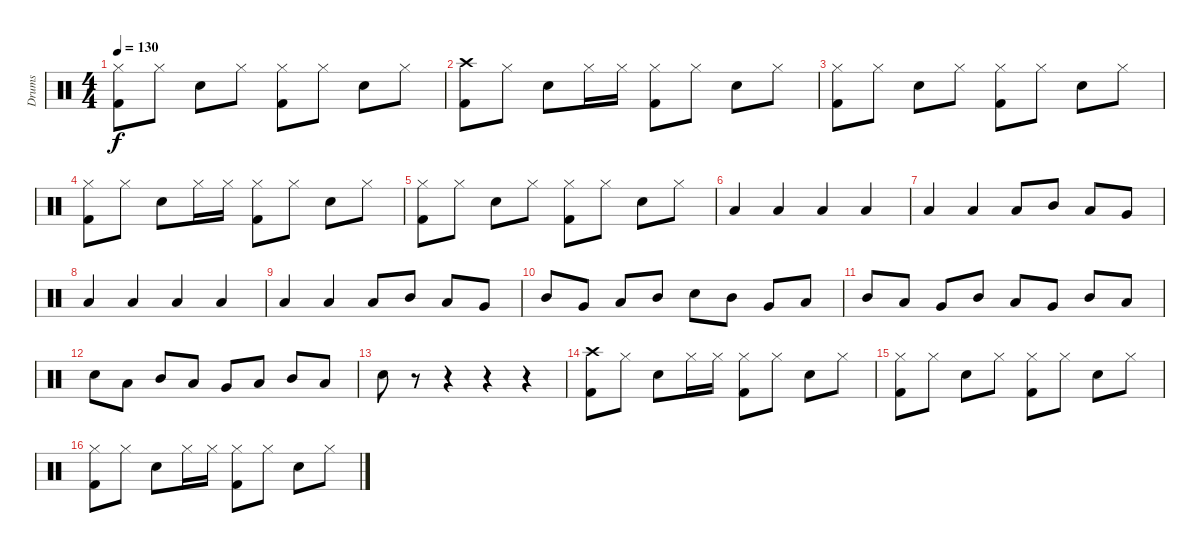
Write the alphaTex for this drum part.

\track ("Drums" "Drums") {instrument percussion}
\staff {score}
\articulation defaults
\ts (4 4)
\tempo 130
\clef neutral
\ks c
("Hi-Hat (closed)" "Kick (hit) 2").8{dy f} "Hi-Hat (closed)".8 "Snare (hit) 2".8 "Hi-Hat (closed)".8 ("Hi-Hat (closed)" "Kick (hit) 2").8 "Hi-Hat (closed)".8 "Snare (hit) 2".8 "Hi-Hat (closed)".8 |
("Crash high (hit)" "Kick (hit) 2").8 "Hi-Hat (closed)".8 "Snare (hit) 2".8 "Hi-Hat (closed)".16 "Hi-Hat (closed)".16 ("Hi-Hat (closed)" "Kick (hit) 2").8 "Hi-Hat (closed)".8 "Snare (hit) 2".8 "Hi-Hat (closed)".8 |
("Hi-Hat (closed)" "Kick (hit) 2").8 "Hi-Hat (closed)".8 "Snare (hit) 2".8 "Hi-Hat (closed)".8 ("Hi-Hat (closed)" "Kick (hit) 2").8 "Hi-Hat (closed)".8 "Snare (hit) 2".8 "Hi-Hat (closed)".8 |
("Hi-Hat (closed)" "Kick (hit) 2").8 "Hi-Hat (closed)".8 "Snare (hit) 2".8 "Hi-Hat (closed)".16 "Hi-Hat (closed)".16 ("Hi-Hat (closed)" "Kick (hit) 2").8 "Hi-Hat (closed)".8 "Snare (hit) 2".8 "Hi-Hat (closed)".8 |
("Hi-Hat (closed)" "Kick (hit) 2").8 "Hi-Hat (closed)".8 "Snare (hit) 2".8 "Hi-Hat (closed)".8 ("Hi-Hat (closed)" "Kick (hit) 2").8 "Hi-Hat (closed)".8 "Snare (hit) 2".8 "Hi-Hat (closed)".8 |
"Low Tom (hit)".4 "Low Tom (hit)".4 "Low Tom (hit)".4 "Low Tom (hit)".4 |
"Low Tom (hit)".4 "Low Tom (hit)".4 "Low Tom (hit)".8 "Mid Tom (hit)".8 "Low Tom (hit)".8 "Very Low Tom (hit)".8 |
"Low Tom (hit)".4 "Low Tom (hit)".4 "Low Tom (hit)".4 "Low Tom (hit)".4 |
"Low Tom (hit)".4 "Low Tom (hit)".4 "Low Tom (hit)".8 "Mid Tom (hit)".8 "Low Tom (hit)".8 "Very Low Tom (hit)".8 |
"Mid Tom (hit)".8 "Very Low Tom (hit)".8 "Low Tom (hit)".8 "Mid Tom (hit)".8 "Snare (hit) 2".8 "Mid Tom (hit)".8 "Very Low Tom (hit)".8 "Low Tom (hit)".8 |
"Mid Tom (hit)".8 "Low Tom (hit)".8 "Very Low Tom (hit)".8 "Mid Tom (hit)".8 "Low Tom (hit)".8 "Very Low Tom (hit)".8 "Mid Tom (hit)".8 "Low Tom (hit)".8 |
"Snare (hit) 2".8 "Low Tom (hit)".8 "Mid Tom (hit)".8 "Low Tom (hit)".8 "Very Low Tom (hit)".8 "Low Tom (hit)".8 "Mid Tom (hit)".8 "Low Tom (hit)".8 |
"Snare (hit) 2".8 r.8 r.4 r.4 r.4 |
("Crash high (hit)" "Kick (hit) 2").8 "Hi-Hat (closed)".8 "Snare (hit) 2".8 "Hi-Hat (closed)".16 "Hi-Hat (closed)".16 ("Hi-Hat (closed)" "Kick (hit) 2").8 "Hi-Hat (closed)".8 "Snare (hit) 2".8 "Hi-Hat (closed)".8 |
("Hi-Hat (closed)" "Kick (hit) 2").8 "Hi-Hat (closed)".8 "Snare (hit) 2".8 "Hi-Hat (closed)".8 ("Hi-Hat (closed)" "Kick (hit) 2").8 "Hi-Hat (closed)".8 "Snare (hit) 2".8 "Hi-Hat (closed)".8 |
("Hi-Hat (closed)" "Kick (hit) 2").8 "Hi-Hat (closed)".8 "Snare (hit) 2".8 "Hi-Hat (closed)".16 "Hi-Hat (closed)".16 ("Hi-Hat (closed)" "Kick (hit) 2").8 "Hi-Hat (closed)".8 "Snare (hit) 2".8 "Hi-Hat (closed)".8
